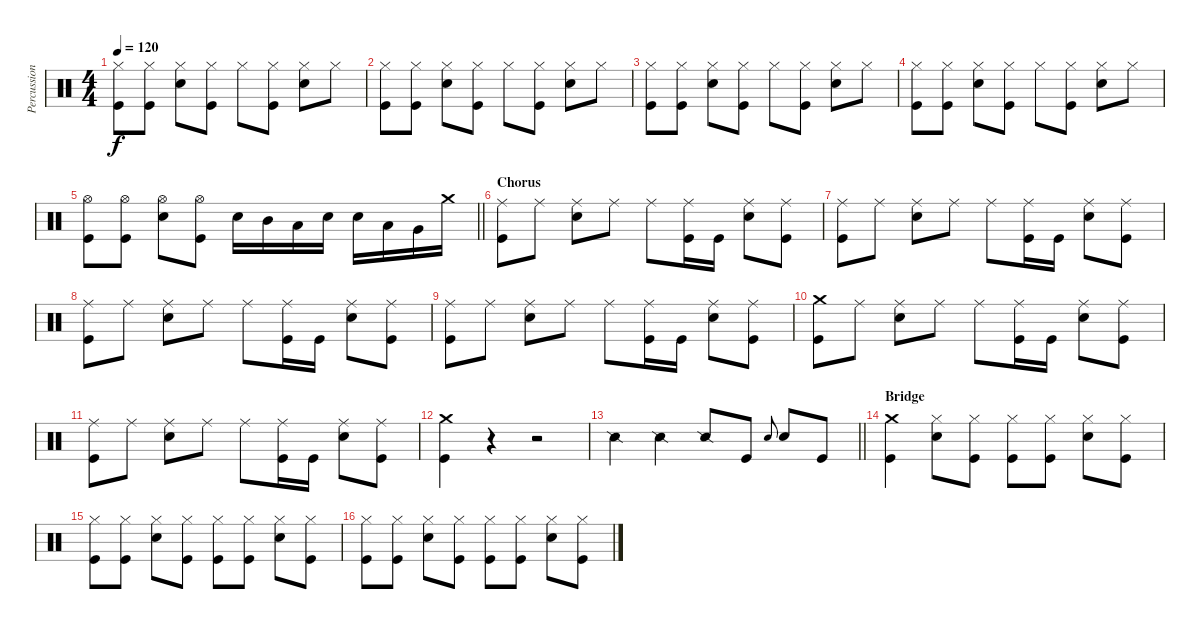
\track ("Percussion" "Percussion") {instrument percussion}
\staff {score}
\articulation defaults
\ts (4 4)
\tempo 120
\clef neutral
\ks c
("Hi-Hat (closed)" "Kick (hit)").8{dy f} ("Hi-Hat (closed)" "Kick (hit)").8 ("Hi-Hat (closed)" "Snare (hit) 2").8 ("Hi-Hat (closed)" "Kick (hit)").8 "Hi-Hat (closed)".8 ("Hi-Hat (closed)" "Kick (hit)").8 ("Hi-Hat (closed)" "Snare (hit) 2").8 "Hi-Hat (closed)".8 |
("Hi-Hat (closed)" "Kick (hit)").8 ("Hi-Hat (closed)" "Kick (hit)").8 ("Hi-Hat (closed)" "Snare (hit) 2").8 ("Hi-Hat (closed)" "Kick (hit)").8 "Hi-Hat (closed)".8 ("Hi-Hat (closed)" "Kick (hit)").8 ("Hi-Hat (closed)" "Snare (hit) 2").8 "Hi-Hat (closed)".8 |
("Hi-Hat (closed)" "Kick (hit)").8 ("Hi-Hat (closed)" "Kick (hit)").8 ("Hi-Hat (closed)" "Snare (hit) 2").8 ("Hi-Hat (closed)" "Kick (hit)").8 "Hi-Hat (closed)".8 ("Hi-Hat (closed)" "Kick (hit)").8 ("Hi-Hat (closed)" "Snare (hit) 2").8 "Hi-Hat (closed)".8 |
("Hi-Hat (closed)" "Kick (hit)").8 ("Hi-Hat (closed)" "Kick (hit)").8 ("Hi-Hat (closed)" "Snare (hit) 2").8 ("Hi-Hat (closed)" "Kick (hit)").8 "Hi-Hat (closed)".8 ("Hi-Hat (closed)" "Kick (hit)").8 ("Hi-Hat (closed)" "Snare (hit) 2").8 "Hi-Hat (closed)".8 |
\barLineRight lightlight
("Hi-Hat (open)" "Kick (hit)").8 ("Hi-Hat (open)" "Kick (hit)").8 ("Hi-Hat (open)" "Snare (hit) 2").8 ("Hi-Hat (open)" "Kick (hit)").8 "Snare (hit) 2".16 "Mid Tom (hit)".16 "Low Tom (hit)".16 "Snare (hit) 2".16 "Snare (hit) 2".16 "Low Tom (hit)".16 "Very Low Tom (hit)".16 "Crash medium (hit)".16 |
\section ("" "Chorus")
("Ride (middle)" "Kick (hit)").8 "Ride (middle)".8 ("Ride (middle)" "Snare (hit) 2").8 "Ride (middle)".8 "Ride (middle)".8 ("Ride (middle)" "Kick (hit)").16 "Kick (hit)".16 ("Ride (middle)" "Snare (hit) 2").8 ("Ride (middle)" "Kick (hit)").8 |
("Ride (middle)" "Kick (hit)").8 "Ride (middle)".8 ("Ride (middle)" "Snare (hit) 2").8 "Ride (middle)".8 "Ride (middle)".8 ("Ride (middle)" "Kick (hit)").16 "Kick (hit)".16 ("Ride (middle)" "Snare (hit) 2").8 ("Ride (middle)" "Kick (hit)").8 |
("Ride (middle)" "Kick (hit)").8 "Ride (middle)".8 ("Ride (middle)" "Snare (hit) 2").8 "Ride (middle)".8 "Ride (middle)".8 ("Ride (middle)" "Kick (hit)").16 "Kick (hit)".16 ("Ride (middle)" "Snare (hit) 2").8 ("Ride (middle)" "Kick (hit)").8 |
("Ride (middle)" "Kick (hit)").8 "Ride (middle)".8 ("Ride (middle)" "Snare (hit) 2").8 "Ride (middle)".8 "Ride (middle)".8 ("Ride (middle)" "Kick (hit)").16 "Kick (hit)".16 ("Ride (middle)" "Snare (hit) 2").8 ("Ride (middle)" "Kick (hit)").8 |
("Crash medium (hit)" "Kick (hit)").8 "Ride (middle)".8 ("Ride (middle)" "Snare (hit) 2").8 "Ride (middle)".8 "Ride (middle)".8 ("Ride (middle)" "Kick (hit)").16 "Kick (hit)".16 ("Ride (middle)" "Snare (hit) 2").8 ("Ride (middle)" "Kick (hit)").8 |
("Ride (middle)" "Kick (hit)").8 "Ride (middle)".8 ("Ride (middle)" "Snare (hit) 2").8 "Ride (middle)".8 "Ride (middle)".8 ("Ride (middle)" "Kick (hit)").16 "Kick (hit)".16 ("Ride (middle)" "Snare (hit) 2").8 ("Ride (middle)" "Kick (hit)").8 |
("Crash medium (hit)" "Kick (hit)").4 r.4 r.2 |
\barLineRight lightlight "Snare (side stick) 2".4 "Snare (side stick) 2".4 "Snare (side stick) 2".8 "Kick (hit)".8 "Snare (hit) 2".8{gr onbeat} "Snare (hit) 2".8 "Kick (hit)".8
|
\section ("" "Bridge")
("Crash medium (hit)" "Kick (hit)").4 ("Hi-Hat (closed)" "Snare (hit) 2").8 ("Hi-Hat (closed)" "Kick (hit)").8 ("Hi-Hat (closed)" "Kick (hit)").8 ("Hi-Hat (closed)" "Kick (hit)").8 ("Hi-Hat (closed)" "Snare (hit) 2").8 ("Hi-Hat (closed)" "Kick (hit)").8 |
("Hi-Hat (closed)" "Kick (hit)").8 ("Hi-Hat (closed)" "Kick (hit)").8 ("Hi-Hat (closed)" "Snare (hit) 2").8 ("Hi-Hat (closed)" "Kick (hit)").8 ("Hi-Hat (closed)" "Kick (hit)").8 ("Hi-Hat (closed)" "Kick (hit)").8 ("Hi-Hat (closed)" "Snare (hit) 2").8 ("Hi-Hat (closed)" "Kick (hit)").8 |
("Hi-Hat (closed)" "Kick (hit)").8 ("Hi-Hat (closed)" "Kick (hit)").8 ("Hi-Hat (closed)" "Snare (hit) 2").8 ("Hi-Hat (closed)" "Kick (hit)").8 ("Hi-Hat (closed)" "Kick (hit)").8 ("Hi-Hat (closed)" "Kick (hit)").8 ("Hi-Hat (closed)" "Snare (hit) 2").8 ("Hi-Hat (closed)" "Kick (hit)").8
